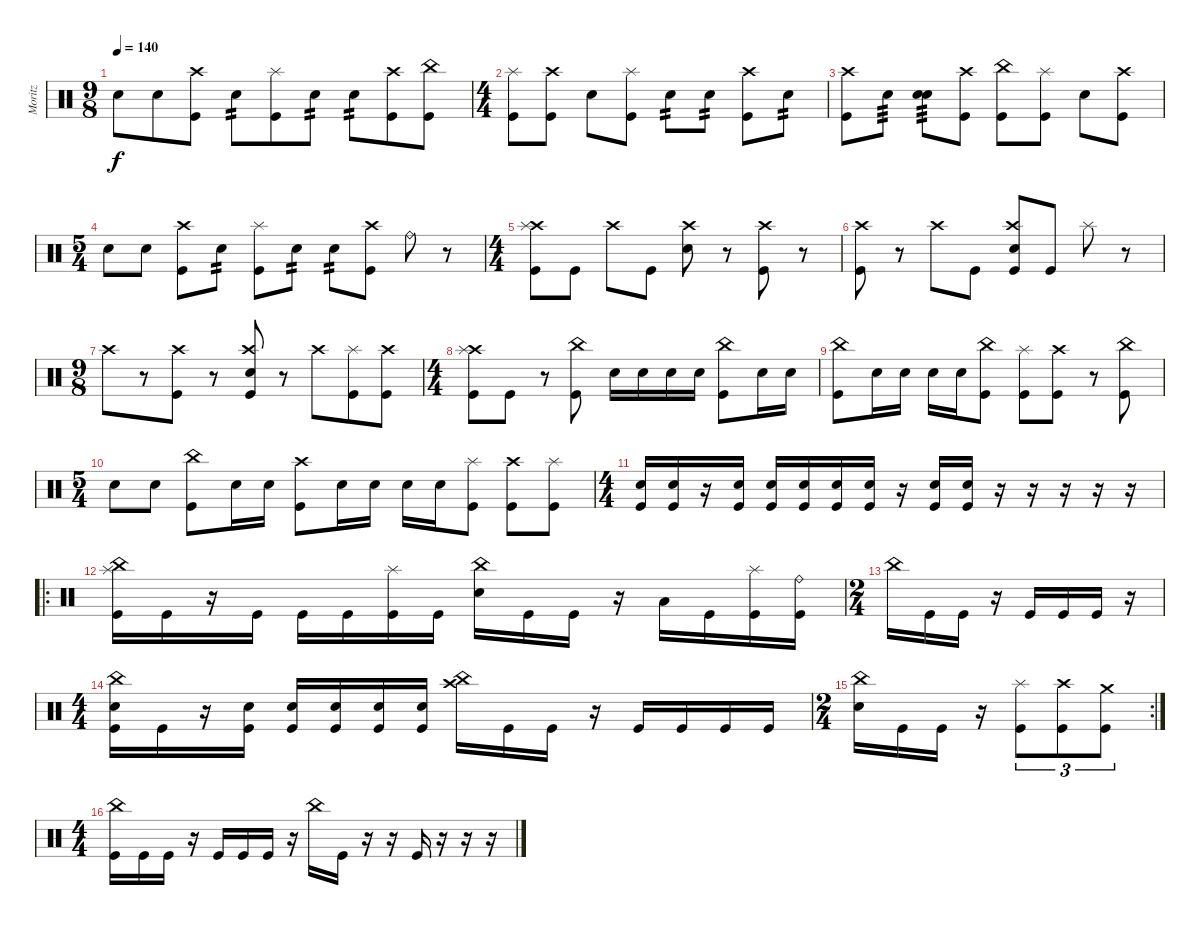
\track ("Moritz" "Moritz") {instrument percussion}
\staff {score}
\articulation defaults
\ts (9 8)
\tempo 140
\clef neutral
\ks c "Snare (hit) 2".8{dy f} "Snare (hit) 2".8
("Crash high (hit)" "Kick (hit)").8 "Snare (hit) 2".8{tp 2} ("Splash (hit)" "Kick (hit)").8 "Snare (hit) 2".8{tp 2} "Snare (hit) 2".8{tp 2} ("Crash high (hit)" "Kick (hit)").8 ("China (hit)" "Kick (hit)").8 |
\ts (4 4)
("Splash (hit)" "Kick (hit)").8{volume 16} ("Crash high (hit)" "Kick (hit)").8 "Snare (hit) 2".8 ("Splash (hit)" "Kick (hit)").8 "Snare (hit) 2".8{tp 2} "Snare (hit) 2".8{tp 2} ("Crash high (hit)" "Kick (hit)").8 "Snare (hit) 2".8{tp 2} |
("Crash high (hit)" "Kick (hit)").8 "Snare (hit) 2".8{tp 3} ("Snare (hit) 2" "Snare (hit)").8{tp 3} ("Crash high (hit)" "Kick (hit)").8 ("China (hit)" "Kick (hit)").8 ("Splash (hit)" "Kick (hit)").8 "Snare (hit) 2".8 ("Crash high (hit)" "Kick (hit)").8 |
\ts (5 4)
"Snare (hit) 2".8 "Snare (hit) 2".8 ("Crash high (hit)" "Kick (hit)").8 "Snare (hit) 2".8{tp 2} ("Splash (hit)" "Kick (hit)").8 "Snare (hit) 2".8{tp 2} "Snare (hit) 2".8{tp 2} ("Crash high (hit)" "Kick (hit)").8 "Ride (bell)".8 r.8 |
\ts (4 4)
("Crash high (hit)" "Splash (hit)" "Kick (hit)").8 "Kick (hit)".8 "Crash high (hit)".8 "Kick (hit)".8 ("Crash high (hit)" "Snare (hit) 2").8 r.8 ("Crash high (hit)" "Kick (hit)").8 r.8 |
("Crash high (hit)" "Kick (hit)").8 r.8 "Crash high (hit)".8 "Kick (hit)".8 ("Crash high (hit)" "Snare (hit) 2" "Kick (hit)").8 "Kick (hit)".8 "Splash (hit)".8 r.8 |
\ts (9 8)
"Crash high (hit)".8 r.8 ("Crash high (hit)" "Kick (hit)").8 r.8 ("Crash high (hit)" "Snare (hit) 2" "Kick (hit)").8 r.8 "Crash high (hit)".8 ("Splash (hit)" "Kick (hit)").8 ("Crash high (hit)" "Kick (hit)").8 |
\ts (4 4)
("Crash high (hit)" "Splash (hit)" "Kick (hit)").8 "Kick (hit)".8 r.8 ("China (hit)" "Kick (hit)").8 "Snare (hit) 2".16 "Snare (hit) 2".16 "Snare (hit) 2".16 "Snare (hit) 2".16 ("China (hit)" "Kick (hit)").8 "Snare (hit) 2".16 "Snare (hit) 2".16 |
("China (hit)" "Kick (hit)").8 "Snare (hit) 2".16 "Snare (hit) 2".16 "Snare (hit) 2".16 "Snare (hit) 2".16 ("China (hit)" "Kick (hit)").8 ("Splash (hit)" "Kick (hit)").8 ("Crash high (hit)" "Kick (hit)").8 r.8 ("China (hit)" "Kick (hit)").8 |
\ts (5 4)
"Snare (hit) 2".8 "Snare (hit) 2".8 ("China (hit)" "Kick (hit)").8 "Snare (hit) 2".16 "Snare (hit) 2".16 ("Crash high (hit)" "Kick (hit)").8 "Snare (hit) 2".16 "Snare (hit) 2".16 "Snare (hit) 2".16 "Snare (hit) 2".16 ("Splash (hit)" "Kick (hit)").8 ("Crash high (hit)" "Kick (hit)").8 ("Splash (hit)" "Kick (hit)").8 |
\ts (4 4)
("Snare (hit) 2" "Kick (hit)").16 ("Snare (hit) 2" "Kick (hit)").16 r.16 ("Snare (hit) 2" "Kick (hit)").16 ("Snare (hit) 2" "Kick (hit)").16 ("Snare (hit) 2" "Kick (hit)").16 ("Snare (hit) 2" "Kick (hit)").16 ("Snare (hit) 2" "Kick (hit)").16 r.16 ("Snare (hit) 2" "Kick (hit)").16 ("Snare (hit) 2" "Kick (hit)").16 r.16 r.16 r.16 r.16 r.16 |
\ro
("Splash (hit)" "China (hit)" "Kick (hit)").16 "Kick (hit)".16 r.16 "Kick (hit)".16 "Kick (hit)".16 "Kick (hit)".16 ("Splash (hit)" "Kick (hit)").16 "Kick (hit)".16 ("China (hit)" "Snare (hit) 2").16 "Kick (hit)".16 "Kick (hit)".16 r.16 "Low Floor Tom (hit)".16 "Kick (hit)".16 ("Splash (hit)" "Kick (hit)").16 ("Ride (bell)" "Kick (hit)").16 |
\ts (2 4)
"China (hit)".16 "Kick (hit)".16 "Kick (hit)".16 r.16 "Kick (hit)".16 "Kick (hit)".16 "Kick (hit)".16 r.16 |
\ts (4 4)
("China (hit)" "Snare (hit) 2" "Kick (hit)").16 "Kick (hit)".16 r.16 ("Snare (hit) 2" "Kick (hit)").16 ("Snare (hit) 2" "Kick (hit)").16 ("Snare (hit) 2" "Kick (hit)").16 ("Snare (hit) 2" "Kick (hit)").16 ("Snare (hit) 2" "Kick (hit)").16 ("Crash high (hit)" "China (hit)").16 "Kick (hit)".16 "Kick (hit)".16 r.16 "Kick (hit)".16 "Kick (hit)".16 "Kick (hit)".16 "Kick (hit)".16 |
\rc 2
\ts (2 4)
("China (hit)" "Snare (hit) 2").16 "Kick (hit)".16 "Kick (hit)".16 r.16 ("Splash (hit)" "Kick (hit)").8{tu (3 2)} ("Crash high (hit)" "Kick (hit)").8{tu (3 2)} ("Crash medium (hit)" "Kick (hit)").8{tu (3 2)} |
\ts (4 4)
("China (hit)" "Kick (hit)").16 "Kick (hit)".16 "Kick (hit)".16 r.16 "Kick (hit)".16 "Kick (hit)".16 "Kick (hit)".16 r.16 "China (hit)".16 "Kick (hit)".16 r.16 r.16 "Kick (hit)".16 r.16 r.16 r.16
